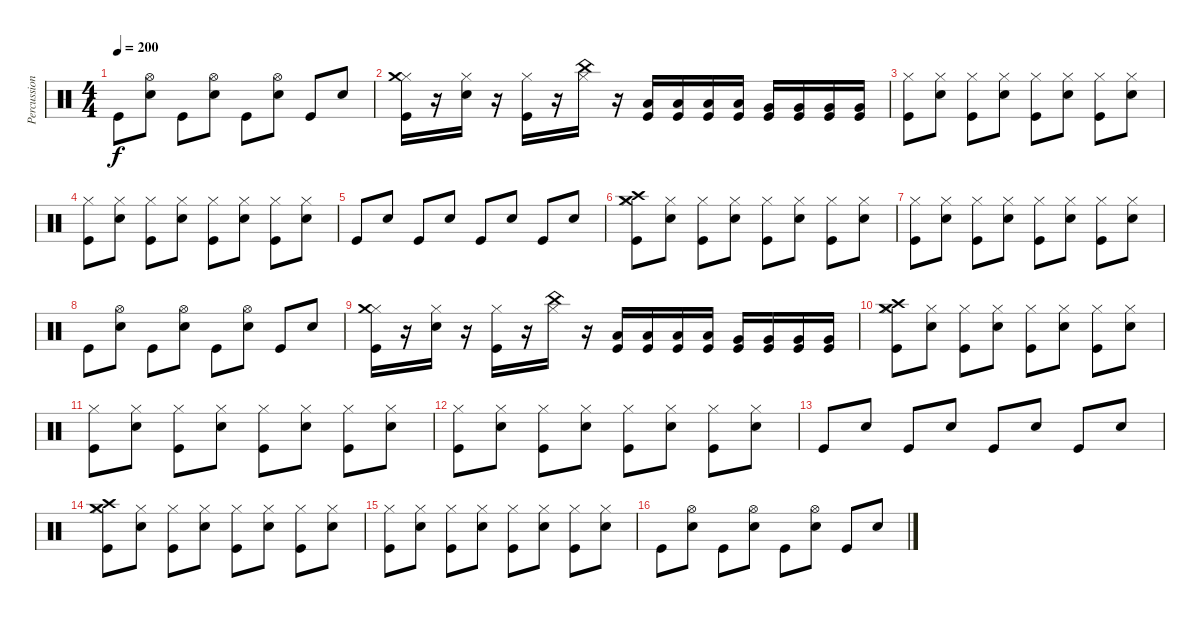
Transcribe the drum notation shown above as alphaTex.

\track ("Percussion" "Percussion") {instrument percussion}
\staff {score}
\articulation defaults
\ts (4 4)
\tempo 200
\clef neutral
\ks c "Kick (hit)".8{dy f}
("Electric Snare (hit)" "Hi-Hat (open)").8 "Kick (hit)".8 ("Electric Snare (hit)" "Hi-Hat (open)").8 "Kick (hit)".8 ("Electric Snare (hit)" "Hi-Hat (open)").8 "Kick (hit)".8 "Electric Snare (hit)".8 |
("Kick (hit)" "Hi-Hat (closed)" "Crash medium (hit)").16 r.16 ("Electric Snare (hit)" "Hi-Hat (closed)").16 r.16 ("Kick (hit)" "Hi-Hat (closed)").16 r.16 ("China (hit)" "Hi-Hat (closed)").16 r.16 ("Kick (hit)" "Low Tom (hit)").16 ("Kick (hit)" "Low Tom (hit)").16 ("Kick (hit)" "Low Tom (hit)").16 ("Kick (hit)" "Low Tom (hit)").16 ("Kick (hit)" "Very Low Tom (hit)").16 ("Kick (hit)" "Very Low Tom (hit)").16 ("Kick (hit)" "Very Low Tom (hit)").16 ("Kick (hit)" "Very Low Tom (hit)").16 |
("Kick (hit)" "Hi-Hat (closed)").8 ("Electric Snare (hit)" "Hi-Hat (closed)").8 ("Kick (hit)" "Hi-Hat (closed)").8 ("Electric Snare (hit)" "Hi-Hat (closed)").8 ("Kick (hit)" "Hi-Hat (closed)").8 ("Electric Snare (hit)" "Hi-Hat (closed)").8 ("Kick (hit)" "Hi-Hat (closed)").8 ("Electric Snare (hit)" "Hi-Hat (closed)").8 |
("Kick (hit)" "Hi-Hat (closed)").8 ("Electric Snare (hit)" "Hi-Hat (closed)").8 ("Kick (hit)" "Hi-Hat (closed)").8 ("Electric Snare (hit)" "Hi-Hat (closed)").8 ("Kick (hit)" "Hi-Hat (closed)").8 ("Electric Snare (hit)" "Hi-Hat (closed)").8 ("Kick (hit)" "Hi-Hat (closed)").8 ("Electric Snare (hit)" "Hi-Hat (closed)").8 |
"Kick (hit)".8 "Electric Snare (hit)".8 "Kick (hit)".8 "Electric Snare (hit)".8 "Kick (hit)".8 "Electric Snare (hit)".8 "Kick (hit)".8 "Electric Snare (hit)".8 |
("Kick (hit)" "Hi-Hat (closed)" "Crash high (hit)" "Crash medium (hit)").8 ("Electric Snare (hit)" "Hi-Hat (closed)").8 ("Kick (hit)" "Hi-Hat (closed)").8 ("Electric Snare (hit)" "Hi-Hat (closed)").8 ("Kick (hit)" "Hi-Hat (closed)").8 ("Electric Snare (hit)" "Hi-Hat (closed)").8 ("Kick (hit)" "Hi-Hat (closed)").8 ("Electric Snare (hit)" "Hi-Hat (closed)").8 |
("Kick (hit)" "Hi-Hat (closed)").8 ("Electric Snare (hit)" "Hi-Hat (closed)").8 ("Kick (hit)" "Hi-Hat (closed)").8 ("Electric Snare (hit)" "Hi-Hat (closed)").8 ("Kick (hit)" "Hi-Hat (closed)").8 ("Electric Snare (hit)" "Hi-Hat (closed)").8 ("Kick (hit)" "Hi-Hat (closed)").8 ("Electric Snare (hit)" "Hi-Hat (closed)").8 |
"Kick (hit)".8 ("Electric Snare (hit)" "Hi-Hat (open)").8 "Kick (hit)".8 ("Electric Snare (hit)" "Hi-Hat (open)").8 "Kick (hit)".8 ("Electric Snare (hit)" "Hi-Hat (open)").8 "Kick (hit)".8 "Electric Snare (hit)".8 |
("Kick (hit)" "Hi-Hat (closed)" "Crash medium (hit)").16 r.16 ("Electric Snare (hit)" "Hi-Hat (closed)").16 r.16 ("Kick (hit)" "Hi-Hat (closed)").16 r.16 ("China (hit)" "Hi-Hat (closed)").16 r.16 ("Kick (hit)" "Low Tom (hit)").16 ("Kick (hit)" "Low Tom (hit)").16 ("Kick (hit)" "Low Tom (hit)").16 ("Kick (hit)" "Low Tom (hit)").16 ("Kick (hit)" "Very Low Tom (hit)").16 ("Kick (hit)" "Very Low Tom (hit)").16 ("Kick (hit)" "Very Low Tom (hit)").16 ("Kick (hit)" "Very Low Tom (hit)").16 |
("Kick (hit)" "Hi-Hat (closed)" "Crash high (hit)" "Crash medium (hit)").8 ("Electric Snare (hit)" "Hi-Hat (closed)").8 ("Kick (hit)" "Hi-Hat (closed)").8 ("Electric Snare (hit)" "Hi-Hat (closed)").8 ("Kick (hit)" "Hi-Hat (closed)").8 ("Electric Snare (hit)" "Hi-Hat (closed)").8 ("Kick (hit)" "Hi-Hat (closed)").8 ("Electric Snare (hit)" "Hi-Hat (closed)").8 |
("Kick (hit)" "Hi-Hat (closed)").8 ("Electric Snare (hit)" "Hi-Hat (closed)").8 ("Kick (hit)" "Hi-Hat (closed)").8 ("Electric Snare (hit)" "Hi-Hat (closed)").8 ("Kick (hit)" "Hi-Hat (closed)").8 ("Electric Snare (hit)" "Hi-Hat (closed)").8 ("Kick (hit)" "Hi-Hat (closed)").8 ("Electric Snare (hit)" "Hi-Hat (closed)").8 |
("Kick (hit)" "Hi-Hat (closed)").8 ("Electric Snare (hit)" "Hi-Hat (closed)").8 ("Kick (hit)" "Hi-Hat (closed)").8 ("Electric Snare (hit)" "Hi-Hat (closed)").8 ("Kick (hit)" "Hi-Hat (closed)").8 ("Electric Snare (hit)" "Hi-Hat (closed)").8 ("Kick (hit)" "Hi-Hat (closed)").8 ("Electric Snare (hit)" "Hi-Hat (closed)").8 |
"Kick (hit)".8 "Electric Snare (hit)".8 "Kick (hit)".8 "Electric Snare (hit)".8 "Kick (hit)".8 "Electric Snare (hit)".8 "Kick (hit)".8 "Electric Snare (hit)".8 |
("Kick (hit)" "Hi-Hat (closed)" "Crash high (hit)" "Crash medium (hit)").8 ("Electric Snare (hit)" "Hi-Hat (closed)").8 ("Kick (hit)" "Hi-Hat (closed)").8 ("Electric Snare (hit)" "Hi-Hat (closed)").8 ("Kick (hit)" "Hi-Hat (closed)").8 ("Electric Snare (hit)" "Hi-Hat (closed)").8 ("Kick (hit)" "Hi-Hat (closed)").8 ("Electric Snare (hit)" "Hi-Hat (closed)").8 |
("Kick (hit)" "Hi-Hat (closed)").8 ("Electric Snare (hit)" "Hi-Hat (closed)").8 ("Kick (hit)" "Hi-Hat (closed)").8 ("Electric Snare (hit)" "Hi-Hat (closed)").8 ("Kick (hit)" "Hi-Hat (closed)").8 ("Electric Snare (hit)" "Hi-Hat (closed)").8 ("Kick (hit)" "Hi-Hat (closed)").8 ("Electric Snare (hit)" "Hi-Hat (closed)").8 |
"Kick (hit)".8 ("Electric Snare (hit)" "Hi-Hat (open)").8 "Kick (hit)".8 ("Electric Snare (hit)" "Hi-Hat (open)").8 "Kick (hit)".8 ("Electric Snare (hit)" "Hi-Hat (open)").8 "Kick (hit)".8 "Electric Snare (hit)".8
